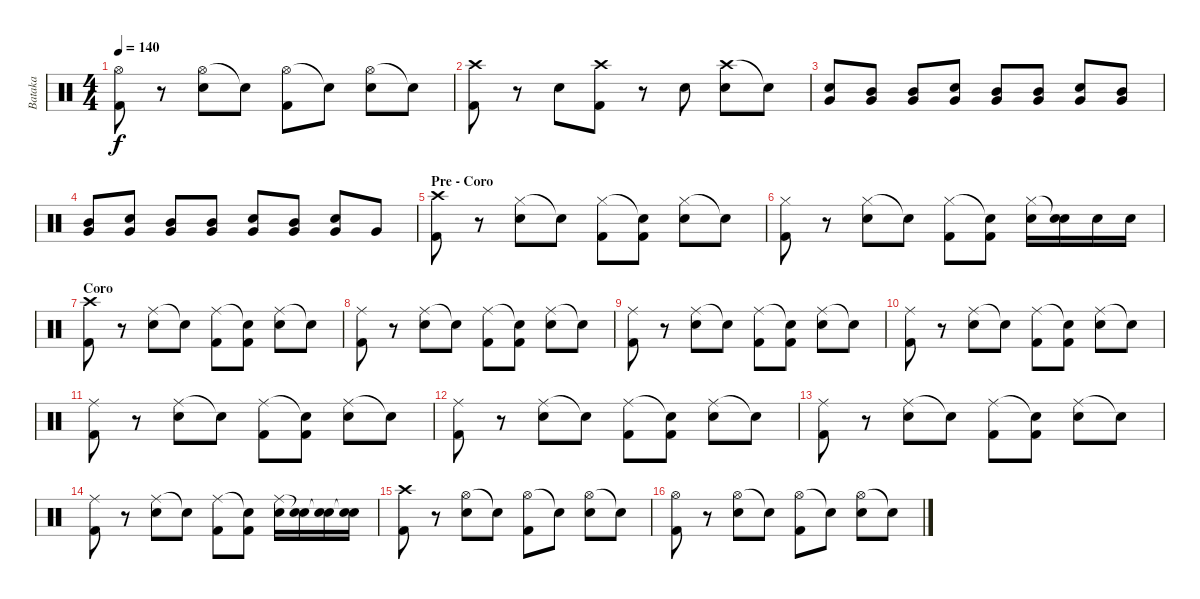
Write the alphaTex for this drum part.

\track ("Bataka" "Bataka") {instrument percussion}
\staff {score}
\articulation defaults
\ts (4 4)
\tempo 140
\clef neutral
\ks c
("Hi-Hat (open)" "Kick (hit) 2").8{dy f} r.8 ("Hi-Hat (open)" "Snare (hit) 2").8 "Snare (hit)"{t}.8 ("Hi-Hat (open)" "Kick (hit) 2").8 "Snare (hit)"{t}.8 ("Hi-Hat (open)" "Snare (hit) 2").8 "Snare (hit)"{t}.8 |
("Crash high (hit)" "Kick (hit) 2").8 r.8 "Snare (hit) 2".8 ("Crash high (hit)" "Kick (hit) 2").8 r.8 "Snare (hit) 2".8 ("Crash high (hit)" "Snare (hit) 2").8 "Snare (hit)"{t}.8 |
("Snare (hit) 2" "Very Low Tom (hit)").8 ("Mid Tom (hit)" "Very Low Tom (hit)").8 ("Mid Tom (hit)" "Very Low Tom (hit)").8 ("Snare (hit) 2" "Very Low Tom (hit)").8 ("Mid Tom (hit)" "Very Low Tom (hit)").8 ("Mid Tom (hit)" "Very Low Tom (hit)").8 ("Snare (hit) 2" "Very Low Tom (hit)").8 ("Mid Tom (hit)" "Very Low Tom (hit)").8 |
("Mid Tom (hit)" "Very Low Tom (hit)").8 ("Snare (hit) 2" "Very Low Tom (hit)").8 ("Mid Tom (hit)" "Very Low Tom (hit)").8 ("Mid Tom (hit)" "Very Low Tom (hit)").8 ("Snare (hit) 2" "Very Low Tom (hit)").8 ("Mid Tom (hit)" "Very Low Tom (hit)").8 ("Snare (hit) 2" "Very Low Tom (hit)").8 "Very Low Tom (hit)".8 |
\section ("" "Pre - Coro")
("Crash high (hit)" "Kick (hit) 2").8 r.8 ("Hi-Hat (closed)" "Snare (hit) 2").8 "Snare (hit)"{t}.8 ("Hi-Hat (closed)" "Kick (hit) 2").8 ("Snare (hit)"{t} "Kick (hit) 2").8 ("Hi-Hat (closed)" "Snare (hit) 2").8 "Snare (hit)"{t}.8 |
("Hi-Hat (closed)" "Kick (hit) 2").8 r.8 ("Hi-Hat (closed)" "Snare (hit) 2").8 "Snare (hit)"{t}.8 ("Hi-Hat (closed)" "Kick (hit) 2").8 ("Snare (hit)"{t} "Kick (hit) 2").8 ("Hi-Hat (closed)" "Snare (hit) 2").16 ("Snare (hit)"{t} "Snare (hit) 2").16 "Snare (hit) 2".16 "Snare (hit) 2".16 |
\section ("" "Coro")
("Crash high (hit)" "Kick (hit) 2").8 r.8 ("Ride (middle)" "Snare (hit) 2").8 "Snare (hit)"{t}.8 ("Ride (middle)" "Kick (hit) 2").8 ("Snare (hit)"{t} "Kick (hit) 2").8 ("Ride (middle)" "Snare (hit) 2").8 "Snare (hit)"{t}.8 |
("Ride (middle)" "Kick (hit) 2").8 r.8 ("Ride (middle)" "Snare (hit) 2").8 "Snare (hit)"{t}.8 ("Ride (middle)" "Kick (hit) 2").8 ("Snare (hit)"{t} "Kick (hit) 2").8 ("Ride (middle)" "Snare (hit) 2").8 "Snare (hit)"{t}.8 |
("Ride (middle)" "Kick (hit) 2").8 r.8 ("Ride (middle)" "Snare (hit) 2").8 "Snare (hit)"{t}.8 ("Ride (middle)" "Kick (hit) 2").8 ("Snare (hit)"{t} "Kick (hit) 2").8 ("Ride (middle)" "Snare (hit) 2").8 "Snare (hit)"{t}.8 |
("Ride (middle)" "Kick (hit) 2").8 r.8 ("Ride (middle)" "Snare (hit) 2").8 "Snare (hit)"{t}.8 ("Ride (middle)" "Kick (hit) 2").8 ("Snare (hit)"{t} "Kick (hit) 2").8 ("Ride (middle)" "Snare (hit) 2").8 "Snare (hit)"{t}.8 |
("Ride (middle)" "Kick (hit) 2").8 r.8 ("Ride (middle)" "Snare (hit) 2").8 "Snare (hit)"{t}.8 ("Ride (middle)" "Kick (hit) 2").8 ("Snare (hit)"{t} "Kick (hit) 2").8 ("Ride (middle)" "Snare (hit) 2").8 "Snare (hit)"{t}.8 |
("Ride (middle)" "Kick (hit) 2").8 r.8 ("Ride (middle)" "Snare (hit) 2").8 "Snare (hit)"{t}.8 ("Ride (middle)" "Kick (hit) 2").8 ("Snare (hit)"{t} "Kick (hit) 2").8 ("Ride (middle)" "Snare (hit) 2").8 "Snare (hit)"{t}.8 |
("Ride (middle)" "Kick (hit) 2").8 r.8 ("Ride (middle)" "Snare (hit) 2").8 "Snare (hit)"{t}.8 ("Ride (middle)" "Kick (hit) 2").8 ("Snare (hit)"{t} "Kick (hit) 2").8 ("Ride (middle)" "Snare (hit) 2").8 "Snare (hit)"{t}.8 |
("Ride (middle)" "Kick (hit) 2").8 r.8 ("Ride (middle)" "Snare (hit) 2").8 "Snare (hit)"{t}.8 ("Ride (middle)" "Kick (hit) 2").8 ("Snare (hit)"{t} "Kick (hit) 2").8 ("Ride (middle)" "Snare (hit) 2").16 ("Snare (hit)"{t} "Snare (hit) 2").16 ("Snare (hit)"{t} "Snare (hit) 2").16 ("Snare (hit)"{t} "Snare (hit) 2").16 |
\section ("" "")
("Crash high (hit)" "Kick (hit) 2").8 r.8 ("Hi-Hat (open)" "Snare (hit) 2").8 "Snare (hit)"{t}.8 ("Hi-Hat (open)" "Kick (hit) 2").8 "Snare (hit)"{t}.8 ("Hi-Hat (open)" "Snare (hit) 2").8 "Snare (hit)"{t}.8 |
("Hi-Hat (open)" "Kick (hit) 2").8 r.8 ("Hi-Hat (open)" "Snare (hit) 2").8 "Snare (hit)"{t}.8 ("Hi-Hat (open)" "Kick (hit) 2").8 "Snare (hit)"{t}.8 ("Hi-Hat (open)" "Snare (hit) 2").8 "Snare (hit)"{t}.8
